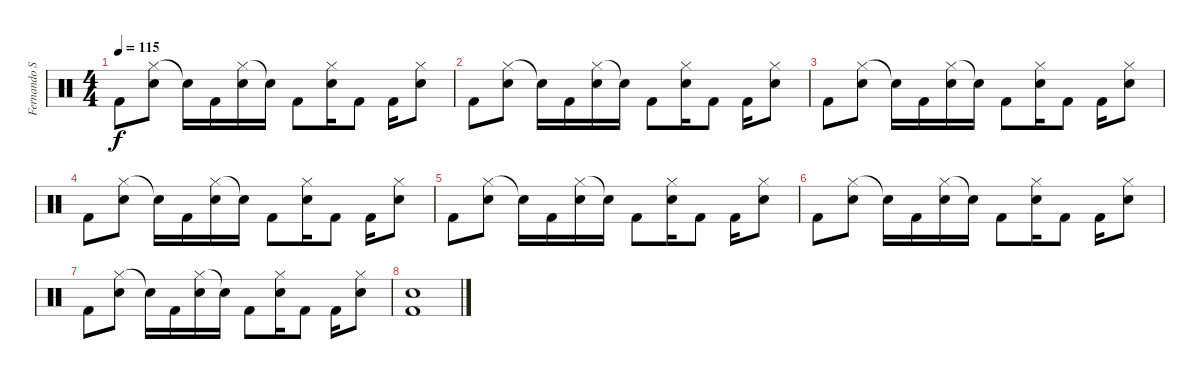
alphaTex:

\track ("Fernando Scarcella" "Fernando S") {instrument percussion}
\staff {score}
\articulation defaults
\ts (4 4)
\tempo 115
\clef neutral
\ks c "Kick (hit) 2".8{dy f}
("Hi-Hat (closed)" "Snare (hit) 2").8 "Snare (hit)"{t}.16 "Kick (hit) 2".16 ("Hi-Hat (closed)" "Snare (hit) 2").16 "Snare (hit)"{t}.16 "Kick (hit) 2".8 ("Hi-Hat (closed)" "Snare (hit) 2").16 "Kick (hit) 2".8 "Kick (hit) 2".16 ("Hi-Hat (closed)" "Snare (hit) 2").8 |
"Kick (hit) 2".8 ("Hi-Hat (closed)" "Snare (hit) 2").8 "Snare (hit)"{t}.16 "Kick (hit) 2".16 ("Hi-Hat (closed)" "Snare (hit) 2").16 "Snare (hit)"{t}.16 "Kick (hit) 2".8 ("Hi-Hat (closed)" "Snare (hit) 2").16 "Kick (hit) 2".8 "Kick (hit) 2".16 ("Hi-Hat (closed)" "Snare (hit) 2").8 |
"Kick (hit) 2".8 ("Hi-Hat (closed)" "Snare (hit) 2").8 "Snare (hit)"{t}.16 "Kick (hit) 2".16 ("Hi-Hat (closed)" "Snare (hit) 2").16 "Snare (hit)"{t}.16 "Kick (hit) 2".8 ("Hi-Hat (closed)" "Snare (hit) 2").16 "Kick (hit) 2".8 "Kick (hit) 2".16 ("Hi-Hat (closed)" "Snare (hit) 2").8 |
"Kick (hit) 2".8 ("Hi-Hat (closed)" "Snare (hit) 2").8 "Snare (hit)"{t}.16 "Kick (hit) 2".16 ("Hi-Hat (closed)" "Snare (hit) 2").16 "Snare (hit)"{t}.16 "Kick (hit) 2".8 ("Hi-Hat (closed)" "Snare (hit) 2").16 "Kick (hit) 2".8 "Kick (hit) 2".16 ("Hi-Hat (closed)" "Snare (hit) 2").8 |
"Kick (hit) 2".8 ("Hi-Hat (closed)" "Snare (hit) 2").8 "Snare (hit)"{t}.16 "Kick (hit) 2".16 ("Hi-Hat (closed)" "Snare (hit) 2").16 "Snare (hit)"{t}.16 "Kick (hit) 2".8 ("Hi-Hat (closed)" "Snare (hit) 2").16 "Kick (hit) 2".8 "Kick (hit) 2".16 ("Hi-Hat (closed)" "Snare (hit) 2").8 |
"Kick (hit) 2".8 ("Hi-Hat (closed)" "Snare (hit) 2").8 "Snare (hit)"{t}.16 "Kick (hit) 2".16 ("Hi-Hat (closed)" "Snare (hit) 2").16 "Snare (hit)"{t}.16 "Kick (hit) 2".8 ("Hi-Hat (closed)" "Snare (hit) 2").16 "Kick (hit) 2".8 "Kick (hit) 2".16 ("Hi-Hat (closed)" "Snare (hit) 2").8 |
"Kick (hit) 2".8 ("Hi-Hat (closed)" "Snare (hit) 2").8 "Snare (hit)"{t}.16 "Kick (hit) 2".16 ("Hi-Hat (closed)" "Snare (hit) 2").16 "Snare (hit)"{t}.16 "Kick (hit) 2".8 ("Hi-Hat (closed)" "Snare (hit) 2").16 "Kick (hit) 2".8 "Kick (hit) 2".16 ("Hi-Hat (closed)" "Snare (hit) 2").8 |
("Snare (hit) 2" "Kick (hit) 2").1
